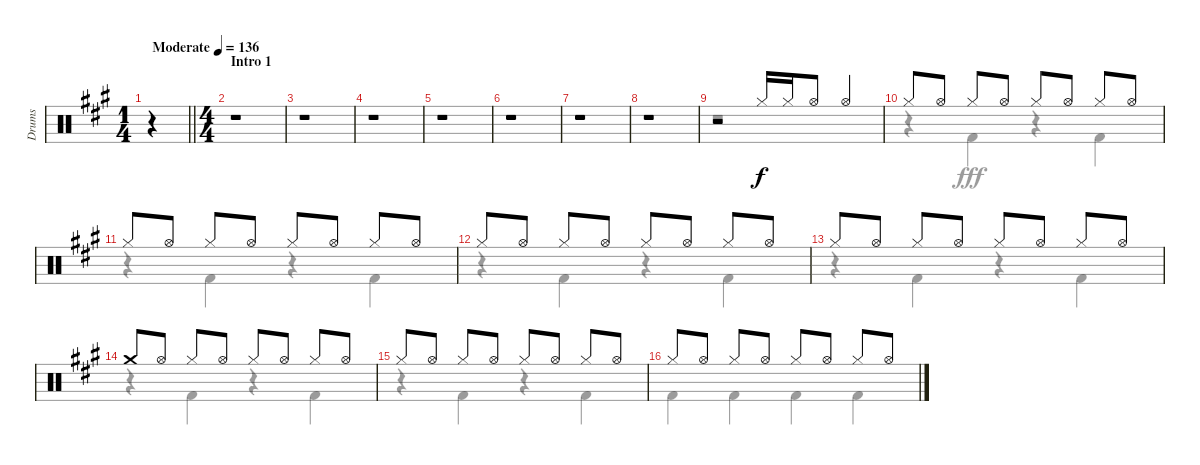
\track ("Drums" "Drums") {instrument percussion}
\staff {score}
\articulation defaults
\voice
\ts (1 4)
\tempo (136 "Moderate")
\clef neutral
\barLineRight lightlight
\ks a
r.4{dy f} |
\ts (4 4)
\section ("" "Intro 1")
r.1 |
r.1 |
r.1 |
r.1 |
r.1 |
r.1 |
r.1 |
r.2 "Hi-Hat (closed)".16 "Hi-Hat (closed)".16 "Hi-Hat (open)".8 "Hi-Hat (open)".4 |
"Hi-Hat (closed)".8 "Hi-Hat (open)".8 "Hi-Hat (closed)".8 "Hi-Hat (open)".8 "Hi-Hat (closed)".8 "Hi-Hat (open)".8 "Hi-Hat (closed)".8 "Hi-Hat (open)".8 |
"Hi-Hat (closed)".8 "Hi-Hat (open)".8 "Hi-Hat (closed)".8 "Hi-Hat (open)".8 "Hi-Hat (closed)".8 "Hi-Hat (open)".8 "Hi-Hat (closed)".8 "Hi-Hat (open)".8 |
"Hi-Hat (closed)".8 "Hi-Hat (open)".8 "Hi-Hat (closed)".8 "Hi-Hat (open)".8 "Hi-Hat (closed)".8 "Hi-Hat (open)".8 "Hi-Hat (closed)".8 "Hi-Hat (open)".8 |
"Hi-Hat (closed)".8 "Hi-Hat (open)".8 "Hi-Hat (closed)".8 "Hi-Hat (open)".8 "Hi-Hat (closed)".8 "Hi-Hat (open)".8 "Hi-Hat (closed)".8 "Hi-Hat (open)".8 |
"Crash medium (hit)".8 "Hi-Hat (open)".8 "Hi-Hat (closed)".8 "Hi-Hat (open)".8 "Hi-Hat (closed)".8 "Hi-Hat (open)".8 "Hi-Hat (closed)".8 "Hi-Hat (open)".8 |
"Hi-Hat (closed)".8 "Hi-Hat (open)".8 "Hi-Hat (closed)".8 "Hi-Hat (open)".8 "Hi-Hat (closed)".8 "Hi-Hat (open)".8 "Hi-Hat (closed)".8 "Hi-Hat (open)".8 |
"Hi-Hat (closed)".8 "Hi-Hat (open)".8 "Hi-Hat (closed)".8 "Hi-Hat (open)".8 "Hi-Hat (closed)".8 "Hi-Hat (open)".8 "Hi-Hat (closed)".8 "Hi-Hat (open)".8
\voice
\clef neutral
\ottava regular
\simile none
\barLineRight lightlight
\ks a
r.4{dy fff} |
r.1 |
r.1 |
r.1 |
r.1 |
r.1 |
r.1 |
r.1 |
r.1 |
r.4 "Kick (hit) 2".4 r.4 "Kick (hit) 2".4 |
r.4 "Kick (hit) 2".4 r.4 "Kick (hit) 2".4 |
r.4 "Kick (hit) 2".4 r.4 "Kick (hit) 2".4 |
r.4 "Kick (hit) 2".4 r.4 "Kick (hit) 2".4 |
r.4 "Kick (hit) 2".4 r.4 "Kick (hit) 2".4 |
r.4 "Kick (hit) 2".4 r.4 "Kick (hit) 2".4 |
"Kick (hit) 2".4 "Kick (hit) 2".4 "Kick (hit) 2".4 "Kick (hit) 2".4
